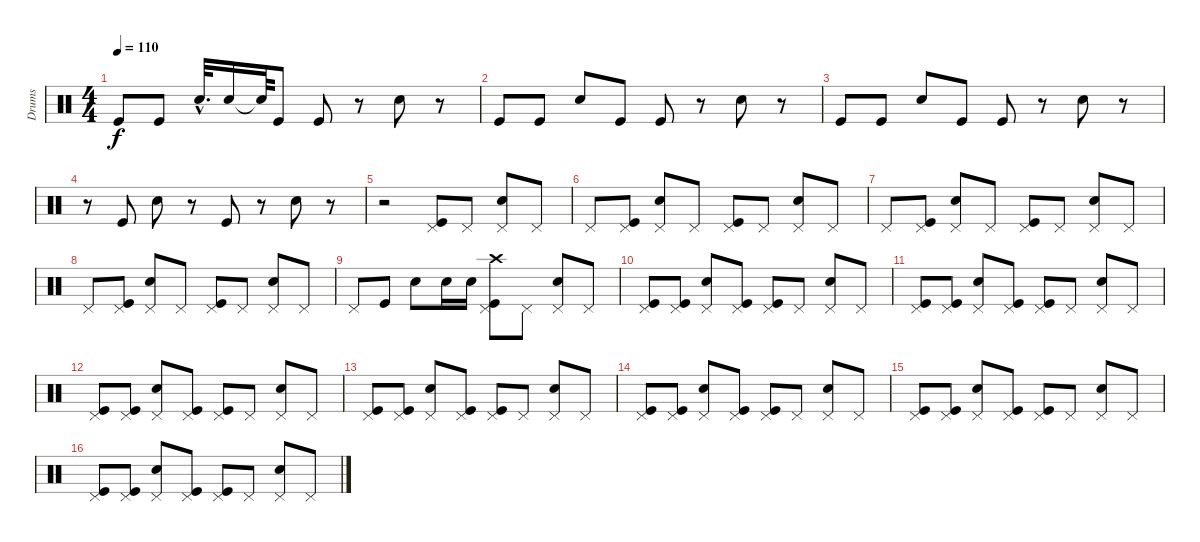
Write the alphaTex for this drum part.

\track ("Drums" "Drums") {instrument percussion}
\staff {score}
\articulation defaults
\ts (4 4)
\tempo 110
\clef neutral
\ks c "Kick (hit)".8{dy f} "Kick (hit)".8 "Electric Snare (hit)"{hac}.32{d} "Electric Snare (hit)".16 "Snare (hit)"{t}.64 "Kick (hit)".8 "Kick (hit)".8
r.8 "Electric Snare (hit)".8 r.8 |
"Kick (hit)".8 "Kick (hit)".8 "Electric Snare (hit)".8 "Kick (hit)".8 "Kick (hit)".8 r.8 "Electric Snare (hit)".8 r.8 |
"Kick (hit)".8 "Kick (hit)".8 "Electric Snare (hit)".8 "Kick (hit)".8 "Kick (hit)".8 r.8 "Electric Snare (hit)".8 r.8 |
r.8 "Kick (hit)".8 "Electric Snare (hit)".8 r.8 "Kick (hit)".8 r.8 "Electric Snare (hit)".8 r.8 |
r.2 ("Pedal Hi-Hat (hit)" "Kick (hit)").8 "Pedal Hi-Hat (hit)".8 ("Pedal Hi-Hat (hit)" "Electric Snare (hit)").8 "Pedal Hi-Hat (hit)".8 |
"Pedal Hi-Hat (hit)".8 ("Pedal Hi-Hat (hit)" "Kick (hit)").8 ("Pedal Hi-Hat (hit)" "Electric Snare (hit)").8 "Pedal Hi-Hat (hit)".8 ("Pedal Hi-Hat (hit)" "Kick (hit)").8 "Pedal Hi-Hat (hit)".8 ("Pedal Hi-Hat (hit)" "Electric Snare (hit)").8 "Pedal Hi-Hat (hit)".8 |
"Pedal Hi-Hat (hit)".8 ("Pedal Hi-Hat (hit)" "Kick (hit)").8 ("Pedal Hi-Hat (hit)" "Electric Snare (hit)").8 "Pedal Hi-Hat (hit)".8 ("Pedal Hi-Hat (hit)" "Kick (hit)").8 "Pedal Hi-Hat (hit)".8 ("Pedal Hi-Hat (hit)" "Electric Snare (hit)").8 "Pedal Hi-Hat (hit)".8 |
"Pedal Hi-Hat (hit)".8 ("Pedal Hi-Hat (hit)" "Kick (hit)").8 ("Pedal Hi-Hat (hit)" "Electric Snare (hit)").8 "Pedal Hi-Hat (hit)".8 ("Pedal Hi-Hat (hit)" "Kick (hit)").8 "Pedal Hi-Hat (hit)".8 ("Pedal Hi-Hat (hit)" "Electric Snare (hit)").8 "Pedal Hi-Hat (hit)".8 |
"Pedal Hi-Hat (hit)".8 "Kick (hit)".8 "Electric Snare (hit)".8 "Electric Snare (hit)".16 "Electric Snare (hit)".16 ("Pedal Hi-Hat (hit)" "Crash high (hit)" "Kick (hit)").8 "Pedal Hi-Hat (hit)".8 ("Pedal Hi-Hat (hit)" "Electric Snare (hit)").8 "Pedal Hi-Hat (hit)".8 |
("Pedal Hi-Hat (hit)" "Kick (hit)").8 ("Pedal Hi-Hat (hit)" "Kick (hit)").8 ("Pedal Hi-Hat (hit)" "Electric Snare (hit)").8 ("Pedal Hi-Hat (hit)" "Kick (hit)").8 ("Pedal Hi-Hat (hit)" "Kick (hit)").8 "Pedal Hi-Hat (hit)".8 ("Pedal Hi-Hat (hit)" "Electric Snare (hit)").8 "Pedal Hi-Hat (hit)".8 |
("Pedal Hi-Hat (hit)" "Kick (hit)").8 ("Pedal Hi-Hat (hit)" "Kick (hit)").8 ("Pedal Hi-Hat (hit)" "Electric Snare (hit)").8 ("Pedal Hi-Hat (hit)" "Kick (hit)").8 ("Pedal Hi-Hat (hit)" "Kick (hit)").8 "Pedal Hi-Hat (hit)".8 ("Pedal Hi-Hat (hit)" "Electric Snare (hit)").8 "Pedal Hi-Hat (hit)".8 |
("Pedal Hi-Hat (hit)" "Kick (hit)").8 ("Pedal Hi-Hat (hit)" "Kick (hit)").8 ("Pedal Hi-Hat (hit)" "Electric Snare (hit)").8 ("Pedal Hi-Hat (hit)" "Kick (hit)").8 ("Pedal Hi-Hat (hit)" "Kick (hit)").8 "Pedal Hi-Hat (hit)".8 ("Pedal Hi-Hat (hit)" "Electric Snare (hit)").8 "Pedal Hi-Hat (hit)".8 |
("Pedal Hi-Hat (hit)" "Kick (hit)").8 ("Pedal Hi-Hat (hit)" "Kick (hit)").8 ("Pedal Hi-Hat (hit)" "Electric Snare (hit)").8 ("Pedal Hi-Hat (hit)" "Kick (hit)").8 ("Pedal Hi-Hat (hit)" "Kick (hit)").8 "Pedal Hi-Hat (hit)".8 ("Pedal Hi-Hat (hit)" "Electric Snare (hit)").8 "Pedal Hi-Hat (hit)".8 |
("Pedal Hi-Hat (hit)" "Kick (hit)").8 ("Pedal Hi-Hat (hit)" "Kick (hit)").8 ("Pedal Hi-Hat (hit)" "Electric Snare (hit)").8 ("Pedal Hi-Hat (hit)" "Kick (hit)").8 ("Pedal Hi-Hat (hit)" "Kick (hit)").8 "Pedal Hi-Hat (hit)".8 ("Pedal Hi-Hat (hit)" "Electric Snare (hit)").8 "Pedal Hi-Hat (hit)".8 |
("Pedal Hi-Hat (hit)" "Kick (hit)").8 ("Pedal Hi-Hat (hit)" "Kick (hit)").8 ("Pedal Hi-Hat (hit)" "Electric Snare (hit)").8 ("Pedal Hi-Hat (hit)" "Kick (hit)").8 ("Pedal Hi-Hat (hit)" "Kick (hit)").8 "Pedal Hi-Hat (hit)".8 ("Pedal Hi-Hat (hit)" "Electric Snare (hit)").8 "Pedal Hi-Hat (hit)".8 |
("Pedal Hi-Hat (hit)" "Kick (hit)").8 ("Pedal Hi-Hat (hit)" "Kick (hit)").8 ("Pedal Hi-Hat (hit)" "Electric Snare (hit)").8 ("Pedal Hi-Hat (hit)" "Kick (hit)").8 ("Pedal Hi-Hat (hit)" "Kick (hit)").8 "Pedal Hi-Hat (hit)".8 ("Pedal Hi-Hat (hit)" "Electric Snare (hit)").8 "Pedal Hi-Hat (hit)".8
